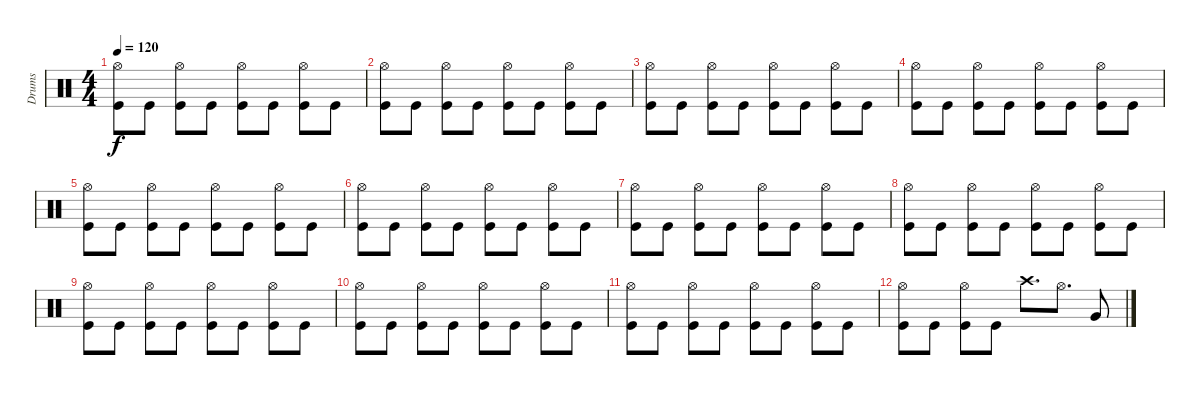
\track ("Drums" "Drums") {instrument percussion}
\staff {score}
\articulation defaults
\ts (4 4)
\tempo 120
\clef neutral
\ks c
("Kick (hit)" "Hi-Hat (open)").8{dy f} "Kick (hit)".8 ("Hi-Hat (open)" "Kick (hit)").8 "Kick (hit)".8 ("Hi-Hat (open)" "Kick (hit)").8 "Kick (hit)".8 ("Hi-Hat (open)" "Kick (hit)").8 "Kick (hit)".8 |
("Kick (hit)" "Hi-Hat (open)").8 "Kick (hit)".8 ("Hi-Hat (open)" "Kick (hit)").8 "Kick (hit)".8 ("Hi-Hat (open)" "Kick (hit)").8 "Kick (hit)".8 ("Hi-Hat (open)" "Kick (hit)").8 "Kick (hit)".8 |
("Kick (hit)" "Hi-Hat (open)").8 "Kick (hit)".8 ("Hi-Hat (open)" "Kick (hit)").8 "Kick (hit)".8 ("Hi-Hat (open)" "Kick (hit)").8 "Kick (hit)".8 ("Hi-Hat (open)" "Kick (hit)").8 "Kick (hit)".8 |
("Kick (hit)" "Hi-Hat (open)").8 "Kick (hit)".8 ("Hi-Hat (open)" "Kick (hit)").8 "Kick (hit)".8 ("Hi-Hat (open)" "Kick (hit)").8 "Kick (hit)".8 ("Hi-Hat (open)" "Kick (hit)").8 "Kick (hit)".8 |
("Kick (hit)" "Hi-Hat (open)").8 "Kick (hit)".8 ("Hi-Hat (open)" "Kick (hit)").8 "Kick (hit)".8 ("Hi-Hat (open)" "Kick (hit)").8 "Kick (hit)".8 ("Hi-Hat (open)" "Kick (hit)").8 "Kick (hit)".8 |
("Kick (hit)" "Hi-Hat (open)").8 "Kick (hit)".8 ("Hi-Hat (open)" "Kick (hit)").8 "Kick (hit)".8 ("Hi-Hat (open)" "Kick (hit)").8 "Kick (hit)".8 ("Hi-Hat (open)" "Kick (hit)").8 "Kick (hit)".8 |
("Kick (hit)" "Hi-Hat (open)").8 "Kick (hit)".8 ("Hi-Hat (open)" "Kick (hit)").8 "Kick (hit)".8 ("Hi-Hat (open)" "Kick (hit)").8 "Kick (hit)".8 ("Hi-Hat (open)" "Kick (hit)").8 "Kick (hit)".8 |
("Kick (hit)" "Hi-Hat (open)").8 "Kick (hit)".8 ("Hi-Hat (open)" "Kick (hit)").8 "Kick (hit)".8 ("Hi-Hat (open)" "Kick (hit)").8 "Kick (hit)".8 ("Hi-Hat (open)" "Kick (hit)").8 "Kick (hit)".8 |
("Kick (hit)" "Hi-Hat (open)").8 "Kick (hit)".8 ("Hi-Hat (open)" "Kick (hit)").8 "Kick (hit)".8 ("Hi-Hat (open)" "Kick (hit)").8 "Kick (hit)".8 ("Hi-Hat (open)" "Kick (hit)").8 "Kick (hit)".8 |
("Kick (hit)" "Hi-Hat (open)").8 "Kick (hit)".8 ("Hi-Hat (open)" "Kick (hit)").8 "Kick (hit)".8 ("Hi-Hat (open)" "Kick (hit)").8 "Kick (hit)".8 ("Hi-Hat (open)" "Kick (hit)").8 "Kick (hit)".8 |
("Kick (hit)" "Hi-Hat (open)").8 "Kick (hit)".8 ("Hi-Hat (open)" "Kick (hit)").8 "Kick (hit)".8 ("Hi-Hat (open)" "Kick (hit)").8 "Kick (hit)".8 ("Hi-Hat (open)" "Kick (hit)").8 "Kick (hit)".8 |
("Kick (hit)" "Hi-Hat (open)").8 "Kick (hit)".8 ("Hi-Hat (open)" "Kick (hit)").8 "Kick (hit)".8 "Crash high (hit)".8{d} "Hi-Hat (open)".8{d} "Very Low Tom (hit)".8
